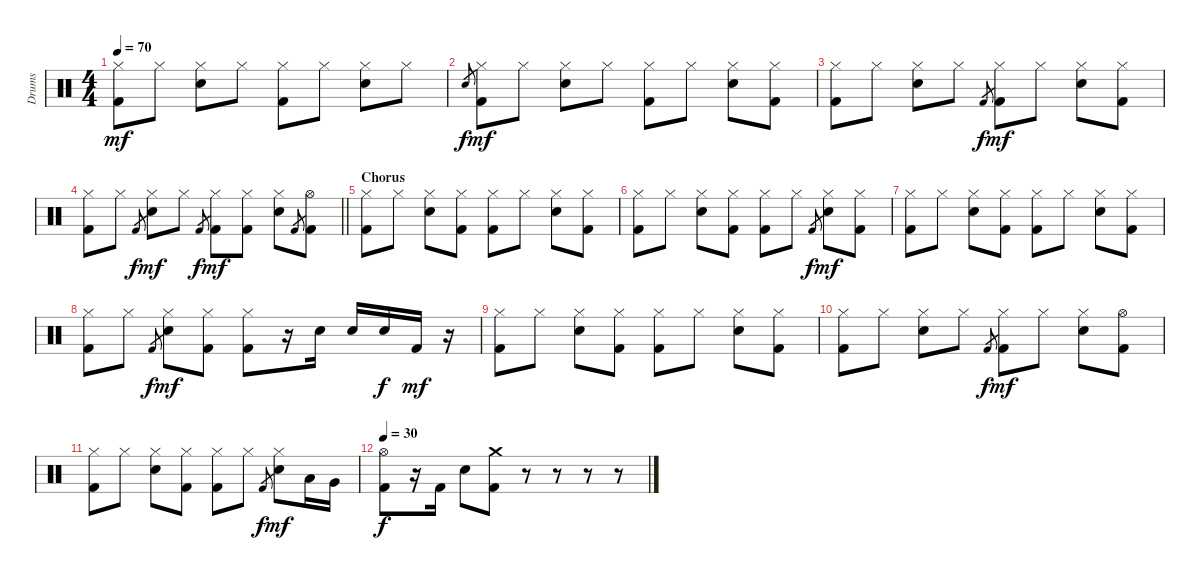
\track ("Drums" "Drums") {instrument percussion}
\staff {score}
\articulation defaults
\ts (4 4)
\tempo 70
\clef neutral
\ks c
("Hi-Hat (closed)" "Kick (hit) 2").8{dy mf} "Hi-Hat (closed)".8 ("Hi-Hat (closed)" "Snare (hit) 2").8 "Hi-Hat (closed)".8 ("Hi-Hat (closed)" "Kick (hit) 2").8 "Hi-Hat (closed)".8 ("Hi-Hat (closed)" "Snare (hit) 2").8 "Hi-Hat (closed)".8 |
"Snare (hit) 2".8{gr dy f} ("Hi-Hat (closed)" "Kick (hit) 2").8{dy mf} "Hi-Hat (closed)".8 ("Hi-Hat (closed)" "Snare (hit) 2").8 "Hi-Hat (closed)".8 ("Hi-Hat (closed)" "Kick (hit) 2").8 "Hi-Hat (closed)".8 ("Hi-Hat (closed)" "Snare (hit) 2").8 ("Hi-Hat (closed)" "Kick (hit) 2").8 |
("Hi-Hat (closed)" "Kick (hit) 2").8 "Hi-Hat (closed)".8 ("Hi-Hat (closed)" "Snare (hit) 2").8 "Hi-Hat (closed)".8 "Kick (hit) 2".8{gr dy f} ("Hi-Hat (closed)" "Kick (hit) 2").8{dy mf} "Hi-Hat (closed)".8 ("Hi-Hat (closed)" "Snare (hit) 2").8 ("Hi-Hat (closed)" "Kick (hit) 2").8 |
\barLineRight lightlight
("Hi-Hat (closed)" "Kick (hit) 2").8 "Hi-Hat (closed)".8 "Kick (hit) 2".8{gr dy f} ("Hi-Hat (closed)" "Snare (hit) 2").8{dy mf} "Hi-Hat (closed)".8 "Kick (hit) 2".8{gr dy f} ("Hi-Hat (closed)" "Kick (hit) 2").8{dy mf} ("Hi-Hat (closed)" "Kick (hit) 2").8 ("Hi-Hat (closed)" "Snare (hit) 2").8 "Kick (hit) 2".8{gr} ("Hi-Hat (open)" "Kick (hit) 2").8 |
\section ("" "Chorus")
("Hi-Hat (closed)" "Kick (hit) 2").8 "Hi-Hat (closed)".8 ("Hi-Hat (closed)" "Snare (hit) 2").8 ("Hi-Hat (closed)" "Kick (hit) 2").8 ("Hi-Hat (closed)" "Kick (hit) 2").8 "Hi-Hat (closed)".8 ("Hi-Hat (closed)" "Snare (hit) 2").8 ("Hi-Hat (closed)" "Kick (hit) 2").8 |
("Hi-Hat (closed)" "Kick (hit) 2").8 "Hi-Hat (closed)".8 ("Hi-Hat (closed)" "Snare (hit) 2").8 ("Hi-Hat (closed)" "Kick (hit) 2").8 ("Hi-Hat (closed)" "Kick (hit) 2").8 "Hi-Hat (closed)".8 "Kick (hit) 2".8{gr dy f} ("Hi-Hat (closed)" "Snare (hit) 2").8{dy mf} ("Hi-Hat (closed)" "Kick (hit) 2").8 |
("Hi-Hat (closed)" "Kick (hit) 2").8 "Hi-Hat (closed)".8 ("Hi-Hat (closed)" "Snare (hit) 2").8 ("Hi-Hat (closed)" "Kick (hit) 2").8 ("Hi-Hat (closed)" "Kick (hit) 2").8 "Hi-Hat (closed)".8 ("Hi-Hat (closed)" "Snare (hit) 2").8 ("Hi-Hat (closed)" "Kick (hit) 2").8 |
("Hi-Hat (closed)" "Kick (hit) 2").8 "Hi-Hat (closed)".8 "Kick (hit) 2".8{gr dy f} ("Hi-Hat (closed)" "Snare (hit) 2").8{dy mf} ("Hi-Hat (closed)" "Kick (hit) 2").8 ("Hi-Hat (closed)" "Kick (hit) 2").8 r.16 "Snare (hit) 2".16 "Snare (hit) 2".16 "Snare (hit) 2".16{dy f} "Kick (hit) 2".16{dy mf} r.16 |
("Hi-Hat (closed)" "Kick (hit) 2").8 "Hi-Hat (closed)".8 ("Hi-Hat (closed)" "Snare (hit) 2").8 ("Hi-Hat (closed)" "Kick (hit) 2").8 ("Hi-Hat (closed)" "Kick (hit) 2").8 "Hi-Hat (closed)".8 ("Hi-Hat (closed)" "Snare (hit) 2").8 ("Hi-Hat (closed)" "Kick (hit) 2").8 |
("Hi-Hat (closed)" "Kick (hit) 2").8 "Hi-Hat (closed)".8 ("Hi-Hat (closed)" "Snare (hit) 2").8 "Hi-Hat (closed)".8 "Kick (hit) 2".8{gr dy f} ("Hi-Hat (closed)" "Kick (hit) 2").8{dy mf} "Hi-Hat (closed)".8 ("Hi-Hat (closed)" "Snare (hit) 2").8 ("Hi-Hat (open)" "Kick (hit) 2").8 |
("Hi-Hat (closed)" "Kick (hit) 2").8 "Hi-Hat (closed)".8 ("Hi-Hat (closed)" "Snare (hit) 2").8 ("Hi-Hat (closed)" "Kick (hit) 2").8 ("Hi-Hat (closed)" "Kick (hit) 2").8 "Hi-Hat (closed)".8 "Kick (hit) 2".8{gr dy f} ("Hi-Hat (closed)" "Snare (hit) 2").8{dy mf} "Low Tom (hit)".16 "Very Low Tom (hit)".16 |
\tempo 30
("Hi-Hat (open)" "Kick (hit) 2").8{dy f} r.16 "Kick (hit) 2".16 "Snare (hit) 2".8 ("Crash medium (hit)" "Kick (hit) 2").8 r.8 r.8 r.8 r.8
